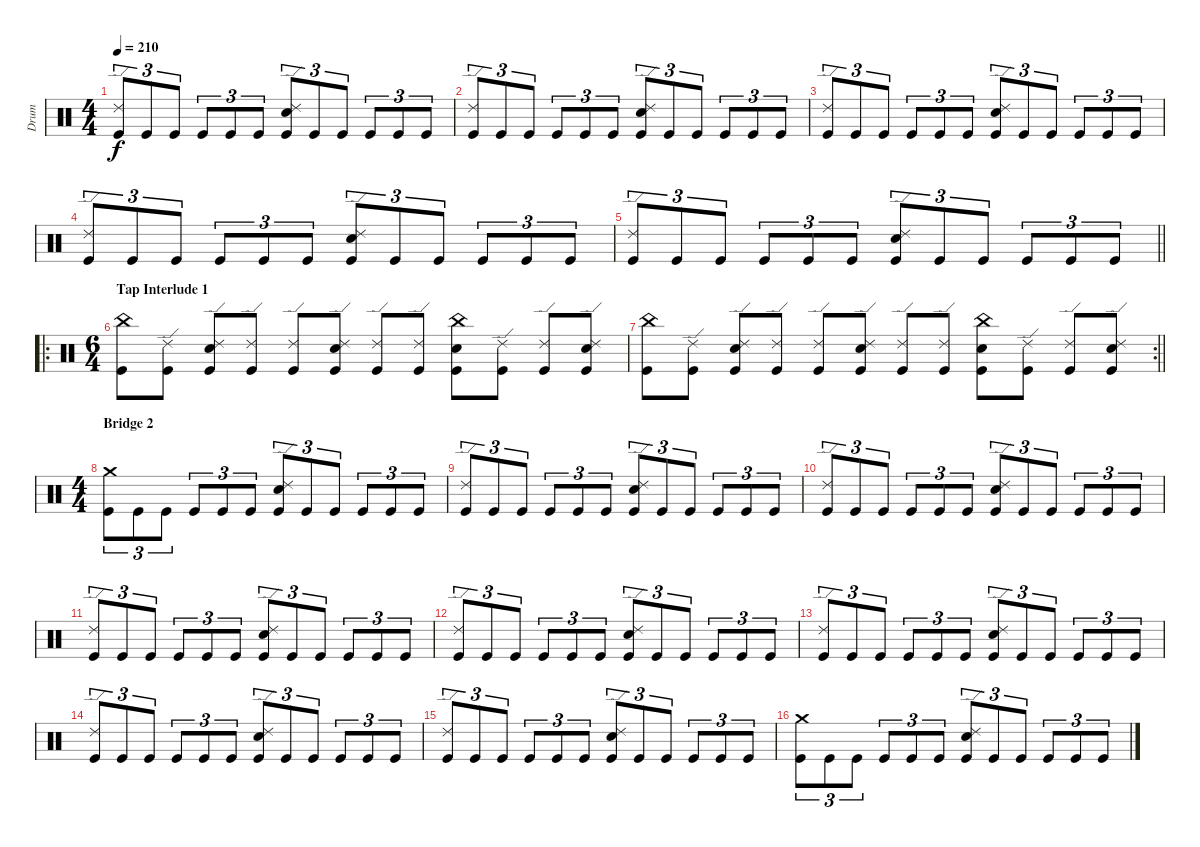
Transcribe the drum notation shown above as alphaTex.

\track ("Drum" "Drum") {instrument percussion}
\staff {score}
\articulation defaults
\ts (4 4)
\tempo 210
\clef neutral
\ks c
("Ride (edge) 2" "Kick (hit)").8{tu (3 2) dy f} "Kick (hit)".8{tu (3 2)} "Kick (hit)".8{tu (3 2)} "Kick (hit)".8{tu (3 2)} "Kick (hit)".8{tu (3 2)} "Kick (hit)".8{tu (3 2)} ("Ride (edge) 2" "Snare (hit) 2" "Kick (hit)").8{tu (3 2)} "Kick (hit)".8{tu (3 2)} "Kick (hit)".8{tu (3 2)} "Kick (hit)".8{tu (3 2)} "Kick (hit)".8{tu (3 2)} "Kick (hit)".8{tu (3 2)} |
("Ride (edge) 2" "Kick (hit)").8{tu (3 2)} "Kick (hit)".8{tu (3 2)} "Kick (hit)".8{tu (3 2)} "Kick (hit)".8{tu (3 2)} "Kick (hit)".8{tu (3 2)} "Kick (hit)".8{tu (3 2)} ("Ride (edge) 2" "Snare (hit) 2" "Kick (hit)").8{tu (3 2)} "Kick (hit)".8{tu (3 2)} "Kick (hit)".8{tu (3 2)} "Kick (hit)".8{tu (3 2)} "Kick (hit)".8{tu (3 2)} "Kick (hit)".8{tu (3 2)} |
("Ride (edge) 2" "Kick (hit)").8{tu (3 2)} "Kick (hit)".8{tu (3 2)} "Kick (hit)".8{tu (3 2)} "Kick (hit)".8{tu (3 2)} "Kick (hit)".8{tu (3 2)} "Kick (hit)".8{tu (3 2)} ("Ride (edge) 2" "Snare (hit) 2" "Kick (hit)").8{tu (3 2)} "Kick (hit)".8{tu (3 2)} "Kick (hit)".8{tu (3 2)} "Kick (hit)".8{tu (3 2)} "Kick (hit)".8{tu (3 2)} "Kick (hit)".8{tu (3 2)} |
("Ride (edge) 2" "Kick (hit)").8{tu (3 2)} "Kick (hit)".8{tu (3 2)} "Kick (hit)".8{tu (3 2)} "Kick (hit)".8{tu (3 2)} "Kick (hit)".8{tu (3 2)} "Kick (hit)".8{tu (3 2)} ("Ride (edge) 2" "Snare (hit) 2" "Kick (hit)").8{tu (3 2)} "Kick (hit)".8{tu (3 2)} "Kick (hit)".8{tu (3 2)} "Kick (hit)".8{tu (3 2)} "Kick (hit)".8{tu (3 2)} "Kick (hit)".8{tu (3 2)} |
\barLineRight lightlight
("Ride (edge) 2" "Kick (hit)").8{tu (3 2)} "Kick (hit)".8{tu (3 2)} "Kick (hit)".8{tu (3 2)} "Kick (hit)".8{tu (3 2)} "Kick (hit)".8{tu (3 2)} "Kick (hit)".8{tu (3 2)} ("Ride (edge) 2" "Snare (hit) 2" "Kick (hit)").8{tu (3 2)} "Kick (hit)".8{tu (3 2)} "Kick (hit)".8{tu (3 2)} "Kick (hit)".8{tu (3 2)} "Kick (hit)".8{tu (3 2)} "Kick (hit)".8{tu (3 2)} |
\ro
\ts (6 4)
\section ("" "Tap Interlude 1")
("China (hit)" "Kick (hit)").8 ("Ride (edge) 2" "Kick (hit)").8 ("Ride (edge) 2" "Snare (hit) 2" "Kick (hit)").8 ("Ride (edge) 2" "Kick (hit)").8 ("Ride (edge) 2" "Kick (hit)").8 ("Ride (edge) 2" "Snare (hit) 2" "Kick (hit)").8 ("Ride (edge) 2" "Kick (hit)").8 ("Ride (edge) 2" "Kick (hit)").8 ("China (hit)" "Snare (hit) 2" "Kick (hit)").8 ("Ride (edge) 2" "Kick (hit)").8 ("Ride (edge) 2" "Kick (hit)").8 ("Ride (edge) 2" "Snare (hit) 2" "Kick (hit)").8 |
\rc 2
\barLineRight lightlight
("China (hit)" "Kick (hit)").8 ("Ride (edge) 2" "Kick (hit)").8 ("Ride (edge) 2" "Snare (hit) 2" "Kick (hit)").8 ("Ride (edge) 2" "Kick (hit)").8 ("Ride (edge) 2" "Kick (hit)").8 ("Ride (edge) 2" "Snare (hit) 2" "Kick (hit)").8 ("Ride (edge) 2" "Kick (hit)").8 ("Ride (edge) 2" "Kick (hit)").8 ("China (hit)" "Snare (hit) 2" "Kick (hit)").8 ("Ride (edge) 2" "Kick (hit)").8 ("Ride (edge) 2" "Kick (hit)").8 ("Ride (edge) 2" "Snare (hit) 2" "Kick (hit)").8 |
\ts (4 4)
\section ("" "Bridge 2")
("Crash medium (hit)" "Kick (hit)").8{tu (3 2)} "Kick (hit)".8{tu (3 2)} "Kick (hit)".8{tu (3 2)} "Kick (hit)".8{tu (3 2)} "Kick (hit)".8{tu (3 2)} "Kick (hit)".8{tu (3 2)} ("Ride (edge) 2" "Snare (hit) 2" "Kick (hit)").8{tu (3 2)} "Kick (hit)".8{tu (3 2)} "Kick (hit)".8{tu (3 2)} "Kick (hit)".8{tu (3 2)} "Kick (hit)".8{tu (3 2)} "Kick (hit)".8{tu (3 2)} |
("Ride (edge) 2" "Kick (hit)").8{tu (3 2)} "Kick (hit)".8{tu (3 2)} "Kick (hit)".8{tu (3 2)} "Kick (hit)".8{tu (3 2)} "Kick (hit)".8{tu (3 2)} "Kick (hit)".8{tu (3 2)} ("Ride (edge) 2" "Snare (hit) 2" "Kick (hit)").8{tu (3 2)} "Kick (hit)".8{tu (3 2)} "Kick (hit)".8{tu (3 2)} "Kick (hit)".8{tu (3 2)} "Kick (hit)".8{tu (3 2)} "Kick (hit)".8{tu (3 2)} |
("Ride (edge) 2" "Kick (hit)").8{tu (3 2)} "Kick (hit)".8{tu (3 2)} "Kick (hit)".8{tu (3 2)} "Kick (hit)".8{tu (3 2)} "Kick (hit)".8{tu (3 2)} "Kick (hit)".8{tu (3 2)} ("Ride (edge) 2" "Snare (hit) 2" "Kick (hit)").8{tu (3 2)} "Kick (hit)".8{tu (3 2)} "Kick (hit)".8{tu (3 2)} "Kick (hit)".8{tu (3 2)} "Kick (hit)".8{tu (3 2)} "Kick (hit)".8{tu (3 2)} |
("Ride (edge) 2" "Kick (hit)").8{tu (3 2)} "Kick (hit)".8{tu (3 2)} "Kick (hit)".8{tu (3 2)} "Kick (hit)".8{tu (3 2)} "Kick (hit)".8{tu (3 2)} "Kick (hit)".8{tu (3 2)} ("Ride (edge) 2" "Snare (hit) 2" "Kick (hit)").8{tu (3 2)} "Kick (hit)".8{tu (3 2)} "Kick (hit)".8{tu (3 2)} "Kick (hit)".8{tu (3 2)} "Kick (hit)".8{tu (3 2)} "Kick (hit)".8{tu (3 2)} |
("Ride (edge) 2" "Kick (hit)").8{tu (3 2)} "Kick (hit)".8{tu (3 2)} "Kick (hit)".8{tu (3 2)} "Kick (hit)".8{tu (3 2)} "Kick (hit)".8{tu (3 2)} "Kick (hit)".8{tu (3 2)} ("Ride (edge) 2" "Snare (hit) 2" "Kick (hit)").8{tu (3 2)} "Kick (hit)".8{tu (3 2)} "Kick (hit)".8{tu (3 2)} "Kick (hit)".8{tu (3 2)} "Kick (hit)".8{tu (3 2)} "Kick (hit)".8{tu (3 2)} |
("Ride (edge) 2" "Kick (hit)").8{tu (3 2)} "Kick (hit)".8{tu (3 2)} "Kick (hit)".8{tu (3 2)} "Kick (hit)".8{tu (3 2)} "Kick (hit)".8{tu (3 2)} "Kick (hit)".8{tu (3 2)} ("Ride (edge) 2" "Snare (hit) 2" "Kick (hit)").8{tu (3 2)} "Kick (hit)".8{tu (3 2)} "Kick (hit)".8{tu (3 2)} "Kick (hit)".8{tu (3 2)} "Kick (hit)".8{tu (3 2)} "Kick (hit)".8{tu (3 2)} |
("Ride (edge) 2" "Kick (hit)").8{tu (3 2)} "Kick (hit)".8{tu (3 2)} "Kick (hit)".8{tu (3 2)} "Kick (hit)".8{tu (3 2)} "Kick (hit)".8{tu (3 2)} "Kick (hit)".8{tu (3 2)} ("Ride (edge) 2" "Snare (hit) 2" "Kick (hit)").8{tu (3 2)} "Kick (hit)".8{tu (3 2)} "Kick (hit)".8{tu (3 2)} "Kick (hit)".8{tu (3 2)} "Kick (hit)".8{tu (3 2)} "Kick (hit)".8{tu (3 2)} |
("Ride (edge) 2" "Kick (hit)").8{tu (3 2)} "Kick (hit)".8{tu (3 2)} "Kick (hit)".8{tu (3 2)} "Kick (hit)".8{tu (3 2)} "Kick (hit)".8{tu (3 2)} "Kick (hit)".8{tu (3 2)} ("Ride (edge) 2" "Snare (hit) 2" "Kick (hit)").8{tu (3 2)} "Kick (hit)".8{tu (3 2)} "Kick (hit)".8{tu (3 2)} "Kick (hit)".8{tu (3 2)} "Kick (hit)".8{tu (3 2)} "Kick (hit)".8{tu (3 2)} |
("Crash medium (hit)" "Kick (hit)").8{tu (3 2)} "Kick (hit)".8{tu (3 2)} "Kick (hit)".8{tu (3 2)} "Kick (hit)".8{tu (3 2)} "Kick (hit)".8{tu (3 2)} "Kick (hit)".8{tu (3 2)} ("Ride (edge) 2" "Snare (hit) 2" "Kick (hit)").8{tu (3 2)} "Kick (hit)".8{tu (3 2)} "Kick (hit)".8{tu (3 2)} "Kick (hit)".8{tu (3 2)} "Kick (hit)".8{tu (3 2)} "Kick (hit)".8{tu (3 2)}
